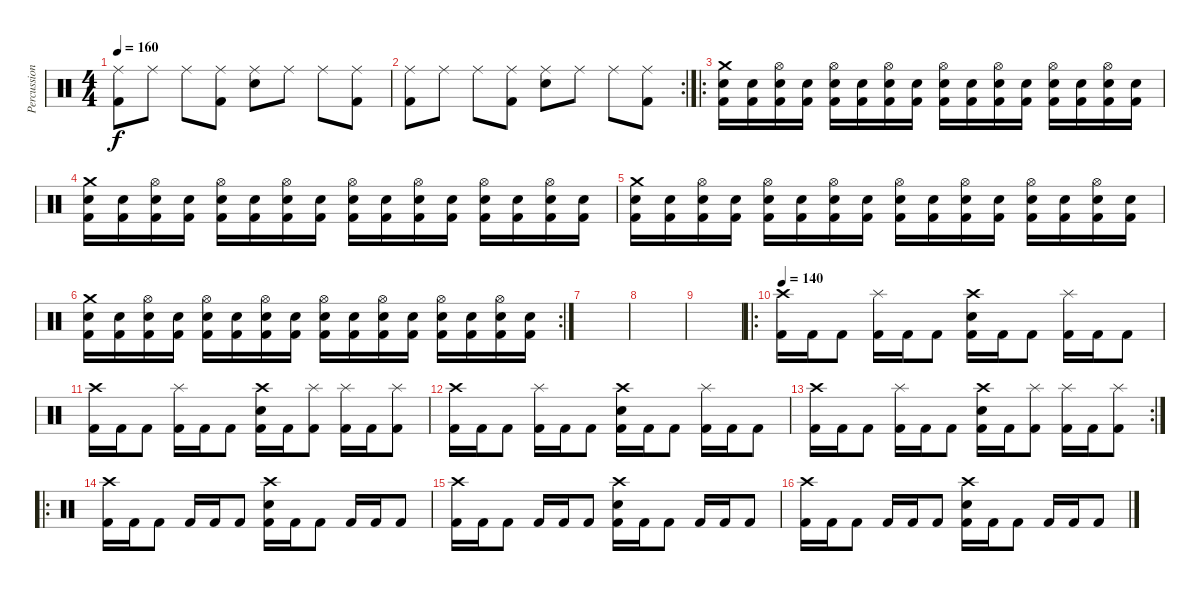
\track ("Percussion" "Percussion") {instrument percussion}
\staff {score}
\articulation defaults
\ts (4 4)
\tempo 160
\clef neutral
\ks c
("Ride (middle)" "Kick (hit) 2").8{dy f} "Ride (middle)".8 "Ride (middle)".8 ("Ride (middle)" "Kick (hit) 2").8 ("Ride (middle)" "Snare (hit) 2").8 "Ride (middle)".8 "Ride (middle)".8 ("Ride (middle)" "Kick (hit) 2").8 |
\rc 2
("Ride (middle)" "Kick (hit) 2").8 "Ride (middle)".8 "Ride (middle)".8 ("Ride (middle)" "Kick (hit) 2").8 ("Ride (middle)" "Snare (hit) 2").8 "Ride (middle)".8 "Ride (middle)".8 ("Ride (middle)" "Kick (hit) 2").8 |
\ro
("Crash medium (hit)" "Electric Snare (hit)" "Kick (hit) 2").16 ("Electric Snare (hit)" "Kick (hit) 2").16 ("Hi-Hat (open)" "Electric Snare (hit)" "Kick (hit) 2").16 ("Electric Snare (hit)" "Kick (hit) 2").16 ("Hi-Hat (open)" "Electric Snare (hit)" "Kick (hit) 2").16 ("Electric Snare (hit)" "Kick (hit) 2").16 ("Hi-Hat (open)" "Electric Snare (hit)" "Kick (hit) 2").16 ("Electric Snare (hit)" "Kick (hit) 2").16 ("Hi-Hat (open)" "Electric Snare (hit)" "Kick (hit) 2").16 ("Electric Snare (hit)" "Kick (hit) 2").16 ("Hi-Hat (open)" "Electric Snare (hit)" "Kick (hit) 2").16 ("Electric Snare (hit)" "Kick (hit) 2").16 ("Hi-Hat (open)" "Electric Snare (hit)" "Kick (hit) 2").16 ("Electric Snare (hit)" "Kick (hit) 2").16 ("Hi-Hat (open)" "Electric Snare (hit)" "Kick (hit) 2").16 ("Electric Snare (hit)" "Kick (hit) 2").16 |
("Crash medium (hit)" "Electric Snare (hit)" "Kick (hit) 2").16 ("Electric Snare (hit)" "Kick (hit) 2").16 ("Hi-Hat (open)" "Electric Snare (hit)" "Kick (hit) 2").16 ("Electric Snare (hit)" "Kick (hit) 2").16 ("Hi-Hat (open)" "Electric Snare (hit)" "Kick (hit) 2").16 ("Electric Snare (hit)" "Kick (hit) 2").16 ("Hi-Hat (open)" "Electric Snare (hit)" "Kick (hit) 2").16 ("Electric Snare (hit)" "Kick (hit) 2").16 ("Hi-Hat (open)" "Electric Snare (hit)" "Kick (hit) 2").16 ("Electric Snare (hit)" "Kick (hit) 2").16 ("Hi-Hat (open)" "Electric Snare (hit)" "Kick (hit) 2").16 ("Electric Snare (hit)" "Kick (hit) 2").16 ("Hi-Hat (open)" "Electric Snare (hit)" "Kick (hit) 2").16 ("Electric Snare (hit)" "Kick (hit) 2").16 ("Hi-Hat (open)" "Electric Snare (hit)" "Kick (hit) 2").16 ("Electric Snare (hit)" "Kick (hit) 2").16 |
("Crash medium (hit)" "Electric Snare (hit)" "Kick (hit) 2").16 ("Electric Snare (hit)" "Kick (hit) 2").16 ("Hi-Hat (open)" "Electric Snare (hit)" "Kick (hit) 2").16 ("Electric Snare (hit)" "Kick (hit) 2").16 ("Hi-Hat (open)" "Electric Snare (hit)" "Kick (hit) 2").16 ("Electric Snare (hit)" "Kick (hit) 2").16 ("Hi-Hat (open)" "Electric Snare (hit)" "Kick (hit) 2").16 ("Electric Snare (hit)" "Kick (hit) 2").16 ("Hi-Hat (open)" "Electric Snare (hit)" "Kick (hit) 2").16 ("Electric Snare (hit)" "Kick (hit) 2").16 ("Hi-Hat (open)" "Electric Snare (hit)" "Kick (hit) 2").16 ("Electric Snare (hit)" "Kick (hit) 2").16 ("Hi-Hat (open)" "Electric Snare (hit)" "Kick (hit) 2").16 ("Electric Snare (hit)" "Kick (hit) 2").16 ("Hi-Hat (open)" "Electric Snare (hit)" "Kick (hit) 2").16 ("Electric Snare (hit)" "Kick (hit) 2").16 |
\rc 2
("Crash medium (hit)" "Electric Snare (hit)" "Kick (hit) 2").16 ("Electric Snare (hit)" "Kick (hit) 2").16 ("Hi-Hat (open)" "Electric Snare (hit)" "Kick (hit) 2").16 ("Electric Snare (hit)" "Kick (hit) 2").16 ("Hi-Hat (open)" "Electric Snare (hit)" "Kick (hit) 2").16 ("Electric Snare (hit)" "Kick (hit) 2").16 ("Hi-Hat (open)" "Electric Snare (hit)" "Kick (hit) 2").16 ("Electric Snare (hit)" "Kick (hit) 2").16 ("Hi-Hat (open)" "Electric Snare (hit)" "Kick (hit) 2").16 ("Electric Snare (hit)" "Kick (hit) 2").16 ("Hi-Hat (open)" "Electric Snare (hit)" "Kick (hit) 2").16 ("Electric Snare (hit)" "Kick (hit) 2").16 ("Hi-Hat (open)" "Electric Snare (hit)" "Kick (hit) 2").16 ("Electric Snare (hit)" "Kick (hit) 2").16 ("Hi-Hat (open)" "Electric Snare (hit)" "Kick (hit) 2").16 ("Electric Snare (hit)" "Kick (hit) 2").16 |
|
|
|
\ro
\tempo 140
("Crash high (hit)" "Kick (hit) 2").16 "Kick (hit) 2".16 "Kick (hit) 2".8 ("Splash (hit)" "Kick (hit) 2").16 "Kick (hit) 2".16 "Kick (hit) 2".8 ("Snare (hit) 2" "Crash high (hit)" "Kick (hit) 2").16 "Kick (hit) 2".16 "Kick (hit) 2".8 ("Splash (hit)" "Kick (hit) 2").16 "Kick (hit) 2".16 "Kick (hit) 2".8 |
("Crash high (hit)" "Kick (hit) 2").16 "Kick (hit) 2".16 "Kick (hit) 2".8 ("Splash (hit)" "Kick (hit) 2").16 "Kick (hit) 2".16 "Kick (hit) 2".8 ("Snare (hit) 2" "Crash high (hit)" "Kick (hit) 2").16 "Kick (hit) 2".16 ("Splash (hit)" "Kick (hit) 2").8 ("Splash (hit)" "Kick (hit) 2").16 "Kick (hit) 2".16 ("Splash (hit)" "Kick (hit) 2").8 |
("Crash high (hit)" "Kick (hit) 2").16 "Kick (hit) 2".16 "Kick (hit) 2".8 ("Splash (hit)" "Kick (hit) 2").16 "Kick (hit) 2".16 "Kick (hit) 2".8 ("Snare (hit) 2" "Crash high (hit)" "Kick (hit) 2").16 "Kick (hit) 2".16 "Kick (hit) 2".8 ("Splash (hit)" "Kick (hit) 2").16 "Kick (hit) 2".16 "Kick (hit) 2".8 |
\rc 2
("Crash high (hit)" "Kick (hit) 2").16 "Kick (hit) 2".16 "Kick (hit) 2".8 ("Splash (hit)" "Kick (hit) 2").16 "Kick (hit) 2".16 "Kick (hit) 2".8 ("Snare (hit) 2" "Crash high (hit)" "Kick (hit) 2").16 "Kick (hit) 2".16 ("Splash (hit)" "Kick (hit) 2").8 ("Splash (hit)" "Kick (hit) 2").16 "Kick (hit) 2".16 ("Splash (hit)" "Kick (hit) 2").8 |
\ro
("Crash high (hit)" "Kick (hit) 2").16 "Kick (hit) 2".16 "Kick (hit) 2".8 "Kick (hit) 2".16 "Kick (hit) 2".16 "Kick (hit) 2".8 ("Snare (hit) 2" "Crash high (hit)" "Kick (hit) 2").16 "Kick (hit) 2".16 "Kick (hit) 2".8 "Kick (hit) 2".16 "Kick (hit) 2".16 "Kick (hit) 2".8 |
("Crash high (hit)" "Kick (hit) 2").16 "Kick (hit) 2".16 "Kick (hit) 2".8 "Kick (hit) 2".16 "Kick (hit) 2".16 "Kick (hit) 2".8 ("Snare (hit) 2" "Crash high (hit)" "Kick (hit) 2").16 "Kick (hit) 2".16 "Kick (hit) 2".8 "Kick (hit) 2".16 "Kick (hit) 2".16 "Kick (hit) 2".8 |
("Crash high (hit)" "Kick (hit) 2").16 "Kick (hit) 2".16 "Kick (hit) 2".8 "Kick (hit) 2".16 "Kick (hit) 2".16 "Kick (hit) 2".8 ("Snare (hit) 2" "Crash high (hit)" "Kick (hit) 2").16 "Kick (hit) 2".16 "Kick (hit) 2".8 "Kick (hit) 2".16 "Kick (hit) 2".16 "Kick (hit) 2".8
